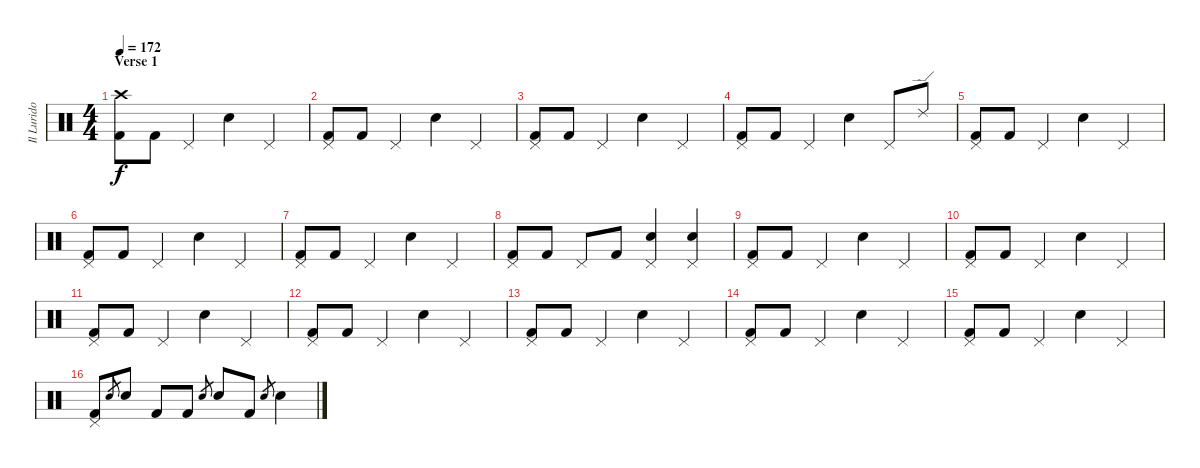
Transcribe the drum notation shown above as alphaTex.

\track ("Il Lurido Cavernicolo (Drums)" "Il Lurido ") {instrument percussion}
\staff {score}
\articulation defaults
\ts (4 4)
\section ("" "Verse 1")
\tempo 172
\clef neutral
\ks c
("Crash high (hit)" "Kick (hit) 2").8{dy f} "Kick (hit) 2".8 "Pedal Hi-Hat (hit)".4 "Electric Snare (hit)".4 "Pedal Hi-Hat (hit)".4 |
("Pedal Hi-Hat (hit)" "Kick (hit) 2").8 "Kick (hit) 2".8 "Pedal Hi-Hat (hit)".4 "Electric Snare (hit)".4 "Pedal Hi-Hat (hit)".4 |
("Pedal Hi-Hat (hit)" "Kick (hit) 2").8 "Kick (hit) 2".8 "Pedal Hi-Hat (hit)".4 "Electric Snare (hit)".4 "Pedal Hi-Hat (hit)".4 |
("Pedal Hi-Hat (hit)" "Kick (hit) 2").8 "Kick (hit) 2".8 "Pedal Hi-Hat (hit)".4 "Electric Snare (hit)".4 "Pedal Hi-Hat (hit)".8 "Ride (edge) 2".8 |
("Pedal Hi-Hat (hit)" "Kick (hit) 2").8 "Kick (hit) 2".8 "Pedal Hi-Hat (hit)".4 "Electric Snare (hit)".4 "Pedal Hi-Hat (hit)".4 |
("Pedal Hi-Hat (hit)" "Kick (hit) 2").8 "Kick (hit) 2".8 "Pedal Hi-Hat (hit)".4 "Electric Snare (hit)".4 "Pedal Hi-Hat (hit)".4 |
("Pedal Hi-Hat (hit)" "Kick (hit) 2").8 "Kick (hit) 2".8 "Pedal Hi-Hat (hit)".4 "Electric Snare (hit)".4 "Pedal Hi-Hat (hit)".4 |
("Pedal Hi-Hat (hit)" "Kick (hit) 2").8 "Kick (hit) 2".8 "Pedal Hi-Hat (hit)".8 "Kick (hit) 2".8 ("Pedal Hi-Hat (hit)" "Electric Snare (hit)").4 ("Pedal Hi-Hat (hit)" "Electric Snare (hit)").4 |
("Pedal Hi-Hat (hit)" "Kick (hit) 2").8 "Kick (hit) 2".8 "Pedal Hi-Hat (hit)".4 "Electric Snare (hit)".4 "Pedal Hi-Hat (hit)".4 |
("Pedal Hi-Hat (hit)" "Kick (hit) 2").8 "Kick (hit) 2".8 "Pedal Hi-Hat (hit)".4 "Electric Snare (hit)".4 "Pedal Hi-Hat (hit)".4 |
("Pedal Hi-Hat (hit)" "Kick (hit) 2").8 "Kick (hit) 2".8 "Pedal Hi-Hat (hit)".4 "Electric Snare (hit)".4 "Pedal Hi-Hat (hit)".4 |
("Pedal Hi-Hat (hit)" "Kick (hit) 2").8 "Kick (hit) 2".8 "Pedal Hi-Hat (hit)".4 "Electric Snare (hit)".4 "Pedal Hi-Hat (hit)".4 |
("Pedal Hi-Hat (hit)" "Kick (hit) 2").8 "Kick (hit) 2".8 "Pedal Hi-Hat (hit)".4 "Electric Snare (hit)".4 "Pedal Hi-Hat (hit)".4 |
("Pedal Hi-Hat (hit)" "Kick (hit) 2").8 "Kick (hit) 2".8 "Pedal Hi-Hat (hit)".4 "Electric Snare (hit)".4 "Pedal Hi-Hat (hit)".4 |
("Pedal Hi-Hat (hit)" "Kick (hit) 2").8 "Kick (hit) 2".8 "Pedal Hi-Hat (hit)".4 "Electric Snare (hit)".4 "Pedal Hi-Hat (hit)".4 |
("Pedal Hi-Hat (hit)" "Kick (hit) 2").8 "Electric Snare (hit)".8{gr} "Electric Snare (hit)".8 "Kick (hit) 2".8 "Kick (hit) 2".8 "Electric Snare (hit)".8{gr} "Electric Snare (hit)".8 "Kick (hit) 2".8 "Electric Snare (hit)".8{gr} "Electric Snare (hit)".4
